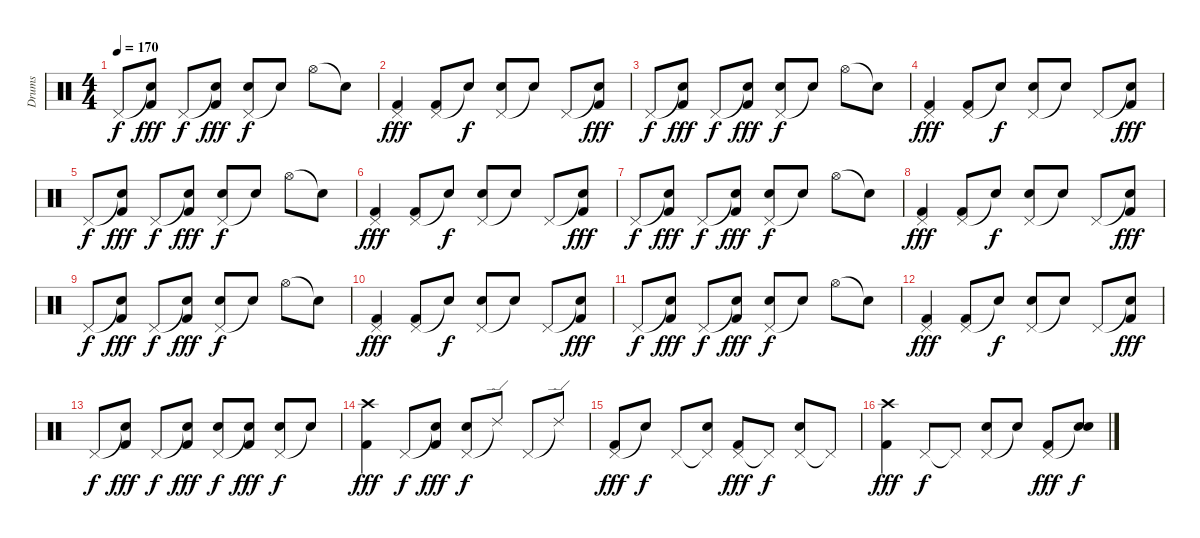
\track ("Drums" "Drums") {instrument percussion}
\staff {score}
\articulation defaults
\ts (4 4)
\tempo 170
\clef neutral
\ks c "Pedal Hi-Hat (hit)".8{dy f}
("Snare (hit)"{t} "Kick (hit) 2").8{dy fff} "Pedal Hi-Hat (hit)".8{dy f} ("Snare (hit)"{t} "Kick (hit) 2").8{dy fff} ("Pedal Hi-Hat (hit)" "Electric Snare (hit)").8{dy f} "Snare (hit)"{t}.8 "Hi-Hat (open)".8 "Snare (hit)"{t}.8 |
("Pedal Hi-Hat (hit)" "Kick (hit) 2").4{dy fff} ("Pedal Hi-Hat (hit)" "Kick (hit) 2").8 "Snare (hit)"{t}.8{dy f} ("Pedal Hi-Hat (hit)" "Electric Snare (hit)").8 "Snare (hit)"{t}.8 "Pedal Hi-Hat (hit)".8 ("Snare (hit)"{t} "Kick (hit) 2").8{dy fff} |
"Pedal Hi-Hat (hit)".8{dy f} ("Snare (hit)"{t} "Kick (hit) 2").8{dy fff} "Pedal Hi-Hat (hit)".8{dy f} ("Snare (hit)"{t} "Kick (hit) 2").8{dy fff} ("Pedal Hi-Hat (hit)" "Electric Snare (hit)").8{dy f} "Snare (hit)"{t}.8 "Hi-Hat (open)".8 "Snare (hit)"{t}.8 |
("Pedal Hi-Hat (hit)" "Kick (hit) 2").4{dy fff} ("Pedal Hi-Hat (hit)" "Kick (hit) 2").8 "Snare (hit)"{t}.8{dy f} ("Pedal Hi-Hat (hit)" "Electric Snare (hit)").8 "Snare (hit)"{t}.8 "Pedal Hi-Hat (hit)".8 ("Snare (hit)"{t} "Kick (hit) 2").8{dy fff} |
"Pedal Hi-Hat (hit)".8{dy f} ("Snare (hit)"{t} "Kick (hit) 2").8{dy fff} "Pedal Hi-Hat (hit)".8{dy f} ("Snare (hit)"{t} "Kick (hit) 2").8{dy fff} ("Pedal Hi-Hat (hit)" "Electric Snare (hit)").8{dy f} "Snare (hit)"{t}.8 "Hi-Hat (open)".8 "Snare (hit)"{t}.8 |
("Pedal Hi-Hat (hit)" "Kick (hit) 2").4{dy fff} ("Pedal Hi-Hat (hit)" "Kick (hit) 2").8 "Snare (hit)"{t}.8{dy f} ("Pedal Hi-Hat (hit)" "Electric Snare (hit)").8 "Snare (hit)"{t}.8 "Pedal Hi-Hat (hit)".8 ("Snare (hit)"{t} "Kick (hit) 2").8{dy fff} |
"Pedal Hi-Hat (hit)".8{dy f} ("Snare (hit)"{t} "Kick (hit) 2").8{dy fff} "Pedal Hi-Hat (hit)".8{dy f} ("Snare (hit)"{t} "Kick (hit) 2").8{dy fff} ("Pedal Hi-Hat (hit)" "Electric Snare (hit)").8{dy f} "Snare (hit)"{t}.8 "Hi-Hat (open)".8 "Snare (hit)"{t}.8 |
("Pedal Hi-Hat (hit)" "Kick (hit) 2").4{dy fff} ("Pedal Hi-Hat (hit)" "Kick (hit) 2").8 "Snare (hit)"{t}.8{dy f} ("Pedal Hi-Hat (hit)" "Electric Snare (hit)").8 "Snare (hit)"{t}.8 "Pedal Hi-Hat (hit)".8 ("Snare (hit)"{t} "Kick (hit) 2").8{dy fff} |
"Pedal Hi-Hat (hit)".8{dy f} ("Snare (hit)"{t} "Kick (hit) 2").8{dy fff} "Pedal Hi-Hat (hit)".8{dy f} ("Snare (hit)"{t} "Kick (hit) 2").8{dy fff} ("Pedal Hi-Hat (hit)" "Electric Snare (hit)").8{dy f} "Snare (hit)"{t}.8 "Hi-Hat (open)".8 "Snare (hit)"{t}.8 |
("Pedal Hi-Hat (hit)" "Kick (hit) 2").4{dy fff} ("Pedal Hi-Hat (hit)" "Kick (hit) 2").8 "Snare (hit)"{t}.8{dy f} ("Pedal Hi-Hat (hit)" "Electric Snare (hit)").8 "Snare (hit)"{t}.8 "Pedal Hi-Hat (hit)".8 ("Snare (hit)"{t} "Kick (hit) 2").8{dy fff} |
"Pedal Hi-Hat (hit)".8{dy f} ("Snare (hit)"{t} "Kick (hit) 2").8{dy fff} "Pedal Hi-Hat (hit)".8{dy f} ("Snare (hit)"{t} "Kick (hit) 2").8{dy fff} ("Pedal Hi-Hat (hit)" "Electric Snare (hit)").8{dy f} "Snare (hit)"{t}.8 "Hi-Hat (open)".8 "Snare (hit)"{t}.8 |
("Pedal Hi-Hat (hit)" "Kick (hit) 2").4{dy fff} ("Pedal Hi-Hat (hit)" "Kick (hit) 2").8 "Snare (hit)"{t}.8{dy f} ("Pedal Hi-Hat (hit)" "Electric Snare (hit)").8 "Snare (hit)"{t}.8 "Pedal Hi-Hat (hit)".8 ("Snare (hit)"{t} "Kick (hit) 2").8{dy fff} |
"Pedal Hi-Hat (hit)".8{dy f} ("Snare (hit)"{t} "Kick (hit) 2").8{dy fff} "Pedal Hi-Hat (hit)".8{dy f} ("Snare (hit)"{t} "Kick (hit) 2").8{dy fff} ("Pedal Hi-Hat (hit)" "Electric Snare (hit)").8{dy f} ("Snare (hit)"{t} "Kick (hit) 2").8{dy fff} ("Pedal Hi-Hat (hit)" "Electric Snare (hit)").8{dy f} "Snare (hit)"{t}.8 |
("Crash high (hit)" "Kick (hit) 2").4{dy fff} "Pedal Hi-Hat (hit)".8{dy f} ("Snare (hit)"{t} "Kick (hit) 2").8{dy fff} ("Pedal Hi-Hat (hit)" "Electric Snare (hit)").8{dy f} "Ride (edge) 2"{t}.8 "Pedal Hi-Hat (hit)".8 "Ride (edge) 2"{t}.8 |
("Pedal Hi-Hat (hit)" "Kick (hit) 2").8{dy fff} "Snare (hit)"{t}.8{dy f} "Pedal Hi-Hat (hit)".8 ("Pedal Hi-Hat (hit)"{t} "Electric Snare (hit)").8 ("Pedal Hi-Hat (hit)" "Kick (hit) 2").8{dy fff} "Pedal Hi-Hat (hit)"{t}.8{dy f} ("Pedal Hi-Hat (hit)" "Electric Snare (hit)").8 "Pedal Hi-Hat (hit)"{t}.8 |
("Crash high (hit)" "Kick (hit) 2").4{dy fff} "Pedal Hi-Hat (hit)".8{dy f} "Pedal Hi-Hat (hit)"{t}.8 ("Pedal Hi-Hat (hit)" "Electric Snare (hit)").8 "Snare (hit)"{t}.8 ("Pedal Hi-Hat (hit)" "Kick (hit) 2").8{dy fff} ("Snare (hit)"{t} "Electric Snare (hit)").8{dy f}
